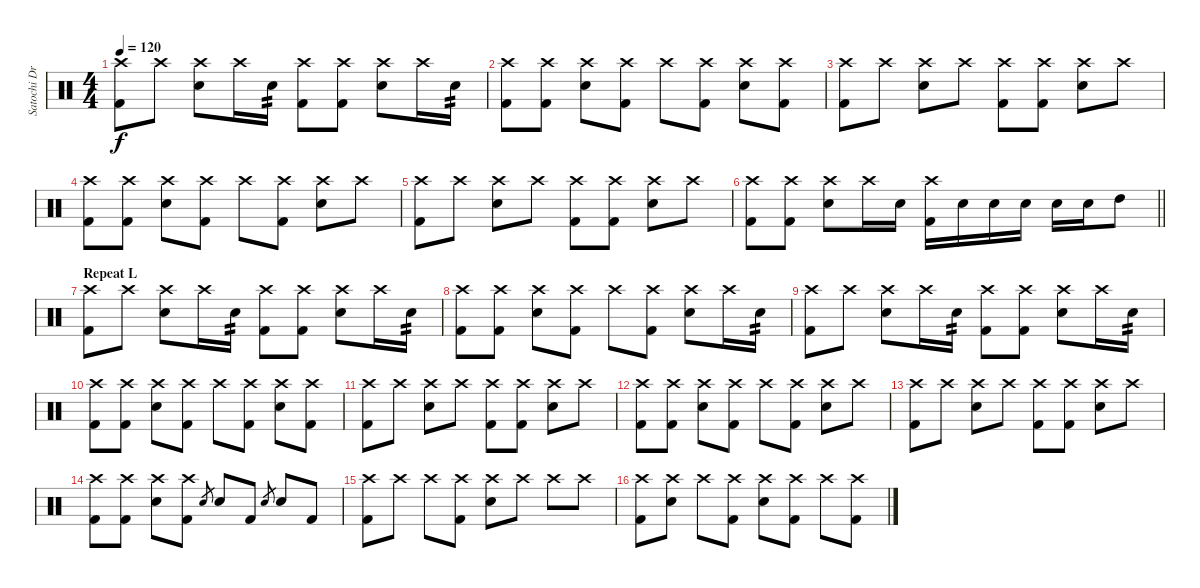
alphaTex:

\track ("Satochi Drums" "Satochi Dr") {instrument percussion}
\staff {score}
\articulation defaults
\ts (4 4)
\tempo 120
\clef neutral
\ks c
("Crash high (hit)" "Kick (hit) 2").8{dy f} "Crash high (hit)".8 ("Crash high (hit)" "Snare (hit) 2").8 "Crash high (hit)".16 "Snare (hit) 2".16{tp 2} ("Crash high (hit)" "Kick (hit) 2").8 ("Crash high (hit)" "Kick (hit) 2").8 ("Crash high (hit)" "Snare (hit) 2").8 "Crash high (hit)".16 "Snare (hit) 2".16{tp 2} |
("Crash high (hit)" "Kick (hit) 2").8 ("Crash high (hit)" "Kick (hit) 2").8 ("Crash high (hit)" "Snare (hit) 2").8 ("Crash high (hit)" "Kick (hit) 2").8 "Crash high (hit)".8 ("Crash high (hit)" "Kick (hit) 2").8 ("Crash high (hit)" "Snare (hit) 2").8 ("Crash high (hit)" "Kick (hit) 2").8 |
("Crash high (hit)" "Kick (hit) 2").8 "Crash high (hit)".8 ("Crash high (hit)" "Snare (hit) 2").8 "Crash high (hit)".8 ("Crash high (hit)" "Kick (hit) 2").8 ("Crash high (hit)" "Kick (hit) 2").8 ("Crash high (hit)" "Snare (hit) 2").8 "Crash high (hit)".8 |
("Crash high (hit)" "Kick (hit) 2").8 ("Crash high (hit)" "Kick (hit) 2").8 ("Crash high (hit)" "Snare (hit) 2").8 ("Crash high (hit)" "Kick (hit) 2").8 "Crash high (hit)".8 ("Crash high (hit)" "Kick (hit) 2").8 ("Crash high (hit)" "Snare (hit) 2").8 "Crash high (hit)".8 |
("Crash high (hit)" "Kick (hit) 2").8 "Crash high (hit)".8 ("Crash high (hit)" "Snare (hit) 2").8 "Crash high (hit)".8 ("Crash high (hit)" "Kick (hit) 2").8 ("Crash high (hit)" "Kick (hit) 2").8 ("Crash high (hit)" "Snare (hit) 2").8 "Crash high (hit)".8 |
\barLineRight lightlight
("Crash high (hit)" "Kick (hit) 2").8 ("Crash high (hit)" "Kick (hit) 2").8 ("Crash high (hit)" "Snare (hit) 2").8 "Crash high (hit)".16 "Snare (hit) 2".16 ("Crash high (hit)" "Kick (hit) 2").16 "Snare (hit) 2".16 "Snare (hit) 2".16 "Snare (hit) 2".16 "Snare (hit) 2".16 "Snare (hit) 2".16 "High Tom (hit)".8 |
\section ("" "Repeat L")
("Crash high (hit)" "Kick (hit) 2").8 "Crash high (hit)".8 ("Crash high (hit)" "Snare (hit) 2").8 "Crash high (hit)".16 "Snare (hit) 2".16{tp 2} ("Crash high (hit)" "Kick (hit) 2").8 ("Crash high (hit)" "Kick (hit) 2").8 ("Crash high (hit)" "Snare (hit) 2").8 "Crash high (hit)".16 "Snare (hit) 2".16{tp 2} |
("Crash high (hit)" "Kick (hit) 2").8 ("Crash high (hit)" "Kick (hit) 2").8 ("Crash high (hit)" "Snare (hit) 2").8 ("Crash high (hit)" "Kick (hit) 2").8 "Crash high (hit)".8 ("Crash high (hit)" "Kick (hit) 2").8 ("Crash high (hit)" "Snare (hit) 2").8 "Crash high (hit)".16 "Snare (hit) 2".16{tp 2} |
("Crash high (hit)" "Kick (hit) 2").8 "Crash high (hit)".8 ("Crash high (hit)" "Snare (hit) 2").8 "Crash high (hit)".16 "Snare (hit) 2".16{tp 2} ("Crash high (hit)" "Kick (hit) 2").8 ("Crash high (hit)" "Kick (hit) 2").8 ("Crash high (hit)" "Snare (hit) 2").8 "Crash high (hit)".16 "Snare (hit) 2".16{tp 2} |
("Crash high (hit)" "Kick (hit) 2").8 ("Crash high (hit)" "Kick (hit) 2").8 ("Crash high (hit)" "Snare (hit) 2").8 ("Crash high (hit)" "Kick (hit) 2").8 "Crash high (hit)".8 ("Crash high (hit)" "Kick (hit) 2").8 ("Crash high (hit)" "Snare (hit) 2").8 ("Crash high (hit)" "Kick (hit) 2").8 |
("Crash high (hit)" "Kick (hit) 2").8 "Crash high (hit)".8 ("Crash high (hit)" "Snare (hit) 2").8 "Crash high (hit)".8 ("Crash high (hit)" "Kick (hit) 2").8 ("Crash high (hit)" "Kick (hit) 2").8 ("Crash high (hit)" "Snare (hit) 2").8 "Crash high (hit)".8 |
("Crash high (hit)" "Kick (hit) 2").8 ("Crash high (hit)" "Kick (hit) 2").8 ("Crash high (hit)" "Snare (hit) 2").8 ("Crash high (hit)" "Kick (hit) 2").8 "Crash high (hit)".8 ("Crash high (hit)" "Kick (hit) 2").8 ("Crash high (hit)" "Snare (hit) 2").8 "Crash high (hit)".8 |
("Crash high (hit)" "Kick (hit) 2").8 "Crash high (hit)".8 ("Crash high (hit)" "Snare (hit) 2").8 "Crash high (hit)".8 ("Crash high (hit)" "Kick (hit) 2").8 ("Crash high (hit)" "Kick (hit) 2").8 ("Crash high (hit)" "Snare (hit) 2").8 "Crash high (hit)".8 |
("Crash high (hit)" "Kick (hit) 2").8 ("Crash high (hit)" "Kick (hit) 2").8 ("Crash high (hit)" "Snare (hit) 2").8 ("Crash high (hit)" "Kick (hit) 2").8 "Snare (hit) 2".8{gr} "Snare (hit) 2".8 "Kick (hit) 2".8 "Snare (hit) 2".8{gr} "Snare (hit) 2".8 "Kick (hit) 2".8 |
("Crash high (hit)" "Kick (hit) 2").8 "Crash high (hit)".8 "Crash high (hit)".8 ("Crash high (hit)" "Kick (hit) 2").8 ("Crash high (hit)" "Snare (hit) 2").8 "Crash high (hit)".8 "Crash high (hit)".8 "Crash high (hit)".8 |
("Crash high (hit)" "Kick (hit) 2").8 ("Crash high (hit)" "Snare (hit) 2").8 "Crash high (hit)".8 ("Crash high (hit)" "Kick (hit) 2").8 ("Crash high (hit)" "Snare (hit) 2").8 ("Crash high (hit)" "Kick (hit) 2").8 "Crash high (hit)".8 ("Crash high (hit)" "Kick (hit) 2").8
